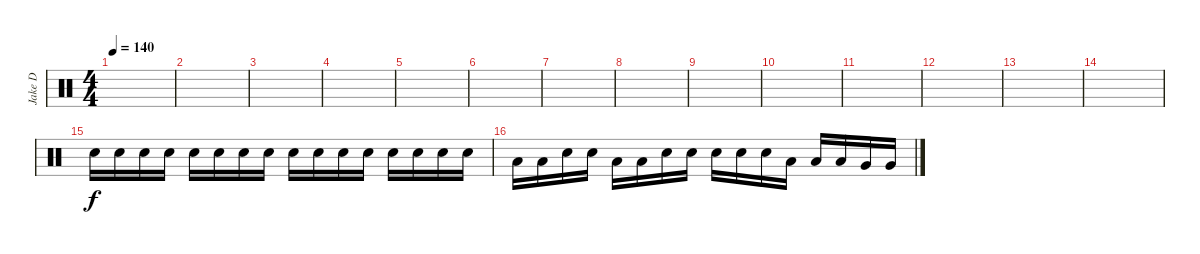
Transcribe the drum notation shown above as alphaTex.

\track ("Jake D" "Jake D") {instrument percussion}
\staff {score}
\articulation defaults
\ts (4 4)
\tempo 140
\clef neutral
\ks c
|
|
|
|
|
|
|
|
|
|
|
|
|
|
"Electric Snare (hit)".16 "Electric Snare (hit)".16 "Electric Snare (hit)".16 "Electric Snare (hit)".16 "Electric Snare (hit)".16 "Electric Snare (hit)".16 "Electric Snare (hit)".16 "Electric Snare (hit)".16 "Electric Snare (hit)".16 "Electric Snare (hit)".16 "Electric Snare (hit)".16 "Electric Snare (hit)".16 "Electric Snare (hit)".16 "Electric Snare (hit)".16 "Electric Snare (hit)".16 "Electric Snare (hit)".16 |
"Low Tom (hit)".16 "Low Tom (hit)".16 "Electric Snare (hit)".16 "Electric Snare (hit)".16 "Low Tom (hit)".16 "Low Tom (hit)".16 "Electric Snare (hit)".16 "Electric Snare (hit)".16 "Electric Snare (hit)".16 "Electric Snare (hit)".16 "Electric Snare (hit)".16 "Low Tom (hit)".16 "Low Tom (hit)".16 "Low Tom (hit)".16 "Very Low Tom (hit)".16 "Very Low Tom (hit)".16
